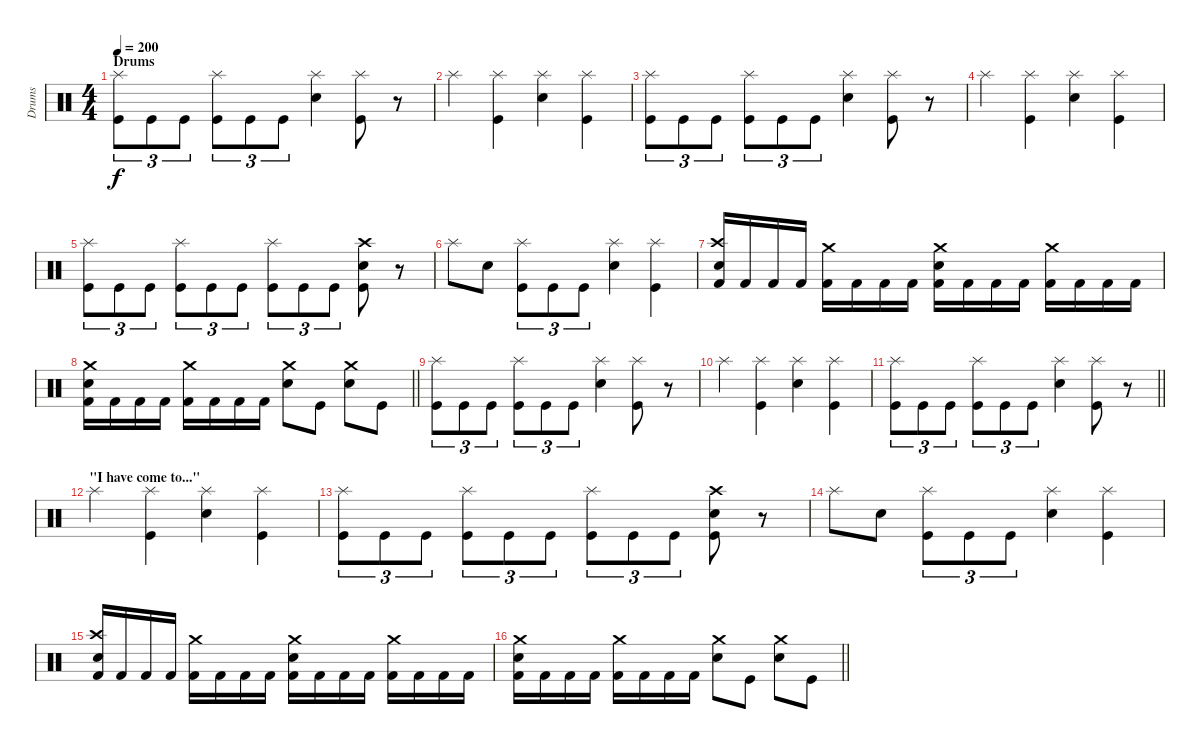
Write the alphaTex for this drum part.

\track ("Drums" "Drums") {instrument percussion}
\staff {score}
\articulation defaults
\ts (4 4)
\section ("" "Drums")
\tempo 200
\clef neutral
\ks c
("Splash (hit)" "Kick (hit)").8{tu (3 2) dy f} "Kick (hit)".8{tu (3 2)} "Kick (hit)".8{tu (3 2)} ("Splash (hit)" "Kick (hit)").8{tu (3 2)} "Kick (hit)".8{tu (3 2)} "Kick (hit)".8{tu (3 2)} ("Splash (hit)" "Snare (hit) 2").4 ("Splash (hit)" "Kick (hit)").8 r.8 |
"Splash (hit)".4 ("Splash (hit)" "Kick (hit)").4 ("Splash (hit)" "Snare (hit) 2").4 ("Splash (hit)" "Kick (hit)").4 |
("Splash (hit)" "Kick (hit)").8{tu (3 2)} "Kick (hit)".8{tu (3 2)} "Kick (hit)".8{tu (3 2)} ("Splash (hit)" "Kick (hit)").8{tu (3 2)} "Kick (hit)".8{tu (3 2)} "Kick (hit)".8{tu (3 2)} ("Splash (hit)" "Snare (hit) 2").4 ("Splash (hit)" "Kick (hit)").8 r.8 |
"Splash (hit)".4 ("Splash (hit)" "Kick (hit)").4 ("Splash (hit)" "Snare (hit) 2").4 ("Splash (hit)" "Kick (hit)").4 |
("Splash (hit)" "Kick (hit)").8{tu (3 2)} "Kick (hit)".8{tu (3 2)} "Kick (hit)".8{tu (3 2)} ("Splash (hit)" "Kick (hit)").8{tu (3 2)} "Kick (hit)".8{tu (3 2)} "Kick (hit)".8{tu (3 2)} ("Splash (hit)" "Kick (hit)").8{tu (3 2)} "Kick (hit)".8{tu (3 2)} "Kick (hit)".8{tu (3 2)} ("Crash high (hit)" "Snare (hit) 2" "Kick (hit)").8 r.8 |
"Splash (hit)".8 "Snare (hit) 2".8 ("Splash (hit)" "Kick (hit)").8{tu (3 2)} "Kick (hit)".8{tu (3 2)} "Kick (hit)".8{tu (3 2)} ("Splash (hit)" "Snare (hit) 2").4 ("Splash (hit)" "Kick (hit)").4 |
("Crash high (hit)" "Snare (hit) 2" "Kick (hit) 2").16 "Kick (hit) 2".16 "Kick (hit) 2".16 "Kick (hit) 2".16 ("Crash medium (hit)" "Kick (hit) 2").16 "Kick (hit) 2".16 "Kick (hit) 2".16 "Kick (hit) 2".16 ("Crash medium (hit)" "Snare (hit) 2" "Kick (hit) 2").16 "Kick (hit) 2".16 "Kick (hit) 2".16 "Kick (hit) 2".16 ("Crash medium (hit)" "Kick (hit) 2").16 "Kick (hit) 2".16 "Kick (hit) 2".16 "Kick (hit) 2".16 |
\barLineRight lightlight
("Crash medium (hit)" "Snare (hit) 2" "Kick (hit) 2").16 "Kick (hit) 2".16 "Kick (hit) 2".16 "Kick (hit) 2".16 ("Crash medium (hit)" "Kick (hit) 2").16 "Kick (hit) 2".16 "Kick (hit) 2".16 "Kick (hit) 2".16 ("Crash medium (hit)" "Snare (hit) 2").8 "Kick (hit)".8 ("Crash medium (hit)" "Snare (hit) 2").8 "Kick (hit)".8 |
("Splash (hit)" "Kick (hit)").8{tu (3 2)} "Kick (hit)".8{tu (3 2)} "Kick (hit)".8{tu (3 2)} ("Splash (hit)" "Kick (hit)").8{tu (3 2)} "Kick (hit)".8{tu (3 2)} "Kick (hit)".8{tu (3 2)} ("Splash (hit)" "Snare (hit) 2").4 ("Splash (hit)" "Kick (hit)").8 r.8 |
"Splash (hit)".4 ("Splash (hit)" "Kick (hit)").4 ("Splash (hit)" "Snare (hit) 2").4 ("Splash (hit)" "Kick (hit)").4 |
\barLineRight lightlight
("Splash (hit)" "Kick (hit)").8{tu (3 2)} "Kick (hit)".8{tu (3 2)} "Kick (hit)".8{tu (3 2)} ("Splash (hit)" "Kick (hit)").8{tu (3 2)} "Kick (hit)".8{tu (3 2)} "Kick (hit)".8{tu (3 2)} ("Splash (hit)" "Snare (hit) 2").4 ("Splash (hit)" "Kick (hit)").8 r.8 |
\section ("" "\"I have come to...\"")
"Splash (hit)".4 ("Splash (hit)" "Kick (hit)").4 ("Splash (hit)" "Snare (hit) 2").4 ("Splash (hit)" "Kick (hit)").4 |
("Splash (hit)" "Kick (hit)").8{tu (3 2)} "Kick (hit)".8{tu (3 2)} "Kick (hit)".8{tu (3 2)} ("Splash (hit)" "Kick (hit)").8{tu (3 2)} "Kick (hit)".8{tu (3 2)} "Kick (hit)".8{tu (3 2)} ("Splash (hit)" "Kick (hit)").8{tu (3 2)} "Kick (hit)".8{tu (3 2)} "Kick (hit)".8{tu (3 2)} ("Crash high (hit)" "Snare (hit) 2" "Kick (hit)").8 r.8 |
"Splash (hit)".8 "Snare (hit) 2".8 ("Splash (hit)" "Kick (hit)").8{tu (3 2)} "Kick (hit)".8{tu (3 2)} "Kick (hit)".8{tu (3 2)} ("Splash (hit)" "Snare (hit) 2").4 ("Splash (hit)" "Kick (hit)").4 |
("Crash high (hit)" "Snare (hit) 2" "Kick (hit) 2").16 "Kick (hit) 2".16 "Kick (hit) 2".16 "Kick (hit) 2".16 ("Crash medium (hit)" "Kick (hit) 2").16 "Kick (hit) 2".16 "Kick (hit) 2".16 "Kick (hit) 2".16 ("Crash medium (hit)" "Snare (hit) 2" "Kick (hit) 2").16 "Kick (hit) 2".16 "Kick (hit) 2".16 "Kick (hit) 2".16 ("Crash medium (hit)" "Kick (hit) 2").16 "Kick (hit) 2".16 "Kick (hit) 2".16 "Kick (hit) 2".16 |
\barLineRight lightlight
("Crash medium (hit)" "Snare (hit) 2" "Kick (hit) 2").16 "Kick (hit) 2".16 "Kick (hit) 2".16 "Kick (hit) 2".16 ("Crash medium (hit)" "Kick (hit) 2").16 "Kick (hit) 2".16 "Kick (hit) 2".16 "Kick (hit) 2".16 ("Crash medium (hit)" "Snare (hit) 2").8 "Kick (hit)".8 ("Crash medium (hit)" "Snare (hit) 2").8 "Kick (hit)".8
